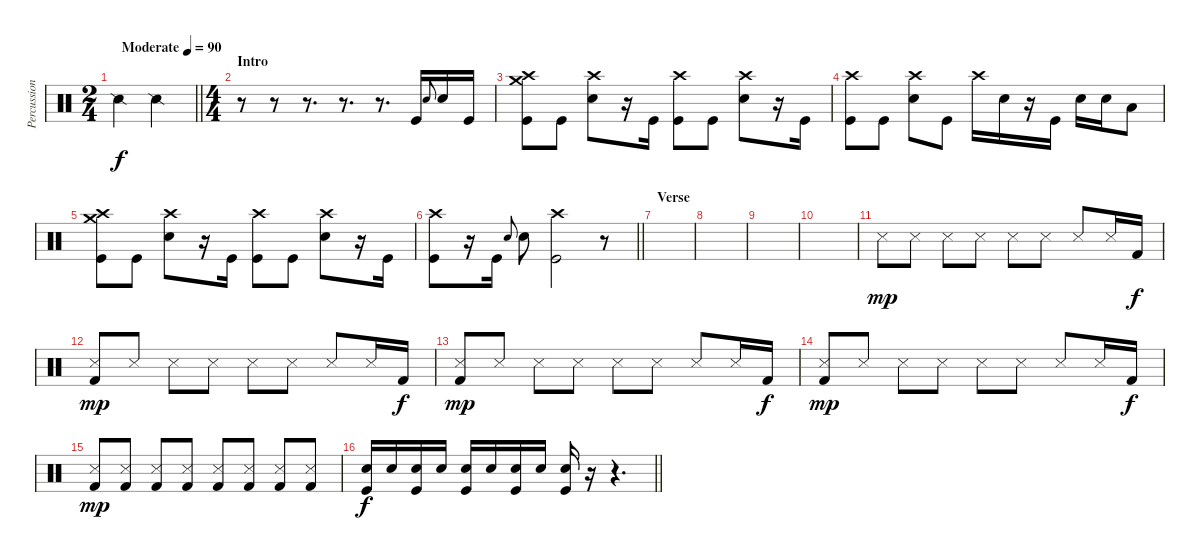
\track ("Percussion" "Percussion") {instrument percussion}
\staff {score}
\articulation defaults
\ts (2 4)
\tempo (90 "Moderate")
\clef neutral
\barLineRight lightlight
\ks c "Snare (side stick) 2".4{dy f} "Snare (side stick) 2".4
|
\ts (4 4)
\section ("" "Intro")
r.8 r.8 r.8{d} r.8{d} r.8{d} "Kick (hit)".16 "Electric Snare (hit)".8{gr onbeat} "Electric Snare (hit)".16 "Kick (hit)".16 |
("Crash high (hit)" "Crash medium (hit)" "Kick (hit)").8 "Kick (hit)".8 ("Crash high (hit)" "Electric Snare (hit)").8 r.16 "Kick (hit)".16 ("Crash high (hit)" "Kick (hit)").8 "Kick (hit)".8 ("Crash high (hit)" "Electric Snare (hit)").8 r.16 "Kick (hit)".16 |
("Crash high (hit)" "Kick (hit)").8 "Kick (hit)".8 ("Crash high (hit)" "Electric Snare (hit)").8 "Kick (hit)".8 "Crash high (hit)".16 "Electric Snare (hit)".16 r.16 "Kick (hit)".16 "Electric Snare (hit)".16 "Electric Snare (hit)".16 "Low Tom (hit)".8 |
("Crash high (hit)" "Crash medium (hit)" "Kick (hit)").8 "Kick (hit)".8 ("Crash high (hit)" "Electric Snare (hit)").8 r.16 "Kick (hit)".16 ("Crash high (hit)" "Kick (hit)").8 "Kick (hit)".8 ("Crash high (hit)" "Electric Snare (hit)").8 r.16 "Kick (hit)".16 |
\barLineRight lightlight
("Crash high (hit)" "Kick (hit)").8 r.16 "Kick (hit)".16 "Electric Snare (hit)".8{gr onbeat} "Electric Snare (hit)".8 ("Crash high (hit)" "Kick (hit)").2 r.8 |
\section ("" "Verse")
|
|
|
|
"Snare (side stick) 3".8{dy mp} "Snare (side stick) 3".8 "Snare (side stick) 3".8 "Snare (side stick) 3".8 "Snare (side stick) 3".8 "Snare (side stick) 3".8 "Snare (side stick) 3".8 "Snare (side stick) 3".16 "Kick (hit) 2".16{dy f} |
("Snare (side stick) 3" "Kick (hit) 2").8{dy mp} "Snare (side stick) 3".8 "Snare (side stick) 3".8 "Snare (side stick) 3".8 "Snare (side stick) 3".8 "Snare (side stick) 3".8 "Snare (side stick) 3".8 "Snare (side stick) 3".16 "Kick (hit) 2".16{dy f} |
("Snare (side stick) 3" "Kick (hit) 2").8{dy mp} "Snare (side stick) 3".8 "Snare (side stick) 3".8 "Snare (side stick) 3".8 "Snare (side stick) 3".8 "Snare (side stick) 3".8 "Snare (side stick) 3".8 "Snare (side stick) 3".16 "Kick (hit) 2".16{dy f} |
("Snare (side stick) 3" "Kick (hit) 2").8{dy mp} "Snare (side stick) 3".8 "Snare (side stick) 3".8 "Snare (side stick) 3".8 "Snare (side stick) 3".8 "Snare (side stick) 3".8 "Snare (side stick) 3".8 "Snare (side stick) 3".16 "Kick (hit) 2".16{dy f} |
("Snare (side stick) 3" "Kick (hit) 2").8{dy mp} ("Snare (side stick) 3" "Kick (hit) 2").8 ("Snare (side stick) 3" "Kick (hit) 2").8 ("Snare (side stick) 3" "Kick (hit) 2").8 ("Snare (side stick) 3" "Kick (hit) 2").8 ("Snare (side stick) 3" "Kick (hit) 2").8 ("Snare (side stick) 3" "Kick (hit) 2").8 ("Snare (side stick) 3" "Kick (hit) 2").8 |
\barLineRight lightlight
("Electric Snare (hit)" "Kick (hit)").16{dy f volume 11} "Electric Snare (hit)".16{volume 16} ("Electric Snare (hit)" "Kick (hit)").16 "Electric Snare (hit)".16 ("Electric Snare (hit)" "Kick (hit)").16 "Electric Snare (hit)".16 ("Electric Snare (hit)" "Kick (hit)").16 "Electric Snare (hit)".16 ("Electric Snare (hit)" "Kick (hit)").16 r.16 r.4{d volume 11}
